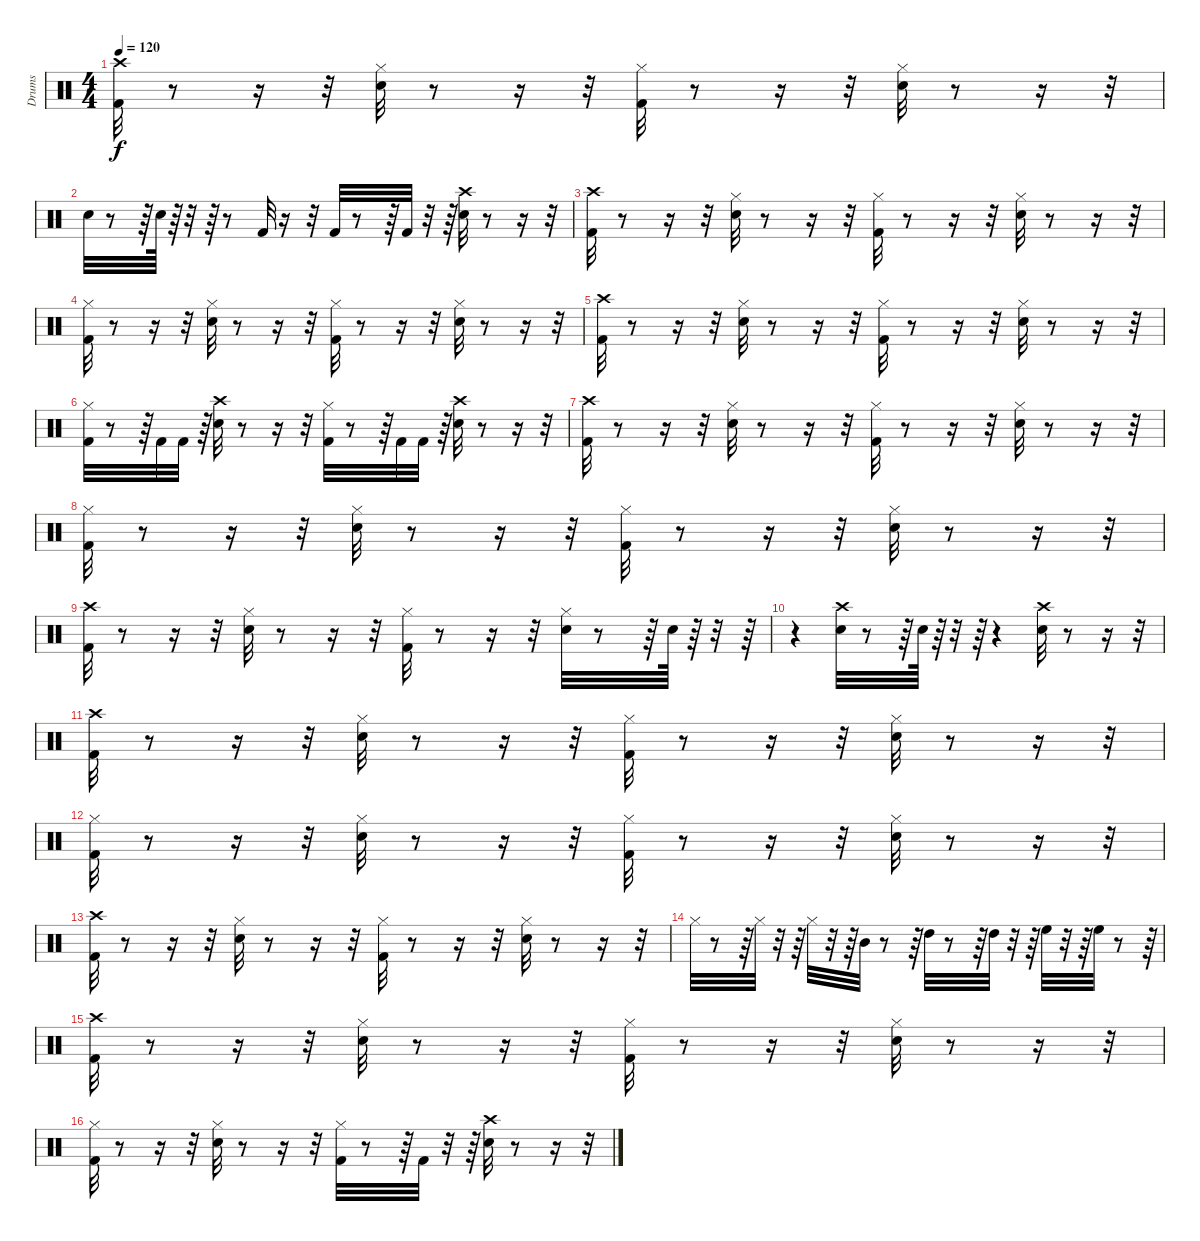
\track ("Drums" "Drums") {instrument percussion}
\staff {score}
\articulation defaults
\ts (4 4)
\tempo 120
\clef neutral
\ks c
("Kick (hit) 2" "Crash high (hit)").32{dy f} r.8 r.16 r.32 ("Hi-Hat (closed)" "Snare (hit) 2").32 r.8 r.16 r.32 ("Hi-Hat (closed)" "Kick (hit) 2").32 r.8 r.16 r.32 ("Hi-Hat (closed)" "Snare (hit) 2").32 r.8 r.16 r.32 |
"Snare (hit) 2".32 r.8 r.64 "Snare (hit) 2".64 r.64 r.32 r.64 r.8 "Kick (hit) 2".32 r.16 r.32 "Kick (hit) 2".32 r.8 r.64 "Kick (hit) 2".32 r.32 r.64 ("Crash high (hit)" "Snare (hit) 2").32 r.8 r.16 r.32 |
("Kick (hit) 2" "Crash high (hit)").32 r.8 r.16 r.32 ("Hi-Hat (closed)" "Snare (hit) 2").32 r.8 r.16 r.32 ("Hi-Hat (closed)" "Kick (hit) 2").32 r.8 r.16 r.32 ("Hi-Hat (closed)" "Snare (hit) 2").32 r.8 r.16 r.32 |
("Kick (hit) 2" "Hi-Hat (closed)").32 r.8 r.16 r.32 ("Snare (hit) 2" "Hi-Hat (closed)").32 r.8 r.16 r.32 ("Kick (hit) 2" "Hi-Hat (closed)").32 r.8 r.16 r.32 ("Snare (hit) 2" "Hi-Hat (closed)").32 r.8 r.16 r.32 |
("Kick (hit) 2" "Crash high (hit)").32 r.8 r.16 r.32 ("Hi-Hat (closed)" "Snare (hit) 2").32 r.8 r.16 r.32 ("Hi-Hat (closed)" "Kick (hit) 2").32 r.8 r.16 r.32 ("Hi-Hat (closed)" "Snare (hit) 2").32 r.8 r.16 r.32 |
("Kick (hit) 2" "Hi-Hat (closed)").32 r.8 r.64 "Kick (hit) 2".32 "Kick (hit) 2".32 r.64 ("Snare (hit) 2" "Crash high (hit)").32 r.8 r.16 r.32 ("Hi-Hat (closed)" "Kick (hit) 2").32 r.8 r.64 "Kick (hit) 2".32 "Kick (hit) 2".32 r.64 ("Crash high (hit)" "Snare (hit) 2").32 r.8 r.16 r.32 |
("Kick (hit) 2" "Crash high (hit)").32 r.8 r.16 r.32 ("Hi-Hat (closed)" "Snare (hit) 2").32 r.8 r.16 r.32 ("Hi-Hat (closed)" "Kick (hit) 2").32 r.8 r.16 r.32 ("Hi-Hat (closed)" "Snare (hit) 2").32 r.8 r.16 r.32 |
("Kick (hit) 2" "Hi-Hat (closed)").32 r.8 r.16 r.32 ("Snare (hit) 2" "Hi-Hat (closed)").32 r.8 r.16 r.32 ("Kick (hit) 2" "Hi-Hat (closed)").32 r.8 r.16 r.32 ("Snare (hit) 2" "Hi-Hat (closed)").32 r.8 r.16 r.32 |
("Crash high (hit)" "Kick (hit) 2").32 r.8 r.16 r.32 ("Hi-Hat (closed)" "Snare (hit) 2").32 r.8 r.16 r.32 ("Kick (hit) 2" "Hi-Hat (closed)").32 r.8 r.16 r.32 ("Hi-Hat (closed)" "Snare (hit) 2").32 r.8 r.64 "Snare (hit) 2".64 r.64 r.32 r.64 |
r.4 ("Crash high (hit)" "Snare (hit) 2").32 r.8 r.64 "Snare (hit) 2".64 r.64 r.32 r.64 r.4 ("Crash high (hit)" "Snare (hit) 2").32 r.8 r.16 r.32 |
("Kick (hit) 2" "Crash high (hit)").32 r.8 r.16 r.32 ("Snare (hit) 2" "Hi-Hat (closed)").32 r.8 r.16 r.32 ("Kick (hit) 2" "Hi-Hat (closed)").32 r.8 r.16 r.32 ("Snare (hit) 2" "Hi-Hat (closed)").32 r.8 r.16 r.32 |
("Kick (hit) 2" "Hi-Hat (closed)").32 r.8 r.16 r.32 ("Snare (hit) 2" "Hi-Hat (closed)").32 r.8 r.16 r.32 ("Kick (hit) 2" "Hi-Hat (closed)").32 r.8 r.16 r.32 ("Snare (hit) 2" "Hi-Hat (closed)").32 r.8 r.16 r.32 |
("Kick (hit) 2" "Crash high (hit)").32 r.8 r.16 r.32 ("Hi-Hat (closed)" "Snare (hit) 2").32 r.8 r.16 r.32 ("Hi-Hat (closed)" "Kick (hit) 2").32 r.8 r.16 r.32 ("Hi-Hat (closed)" "Snare (hit) 2").32 r.8 r.16 r.32 |
"Hi-Hat (closed)".32 r.8 r.64 "Hi-Hat (closed)".32 r.32 r.64 "Hi-Hat (closed)".32 r.32 r.64 "Mid Tom (hit)".32 r.8 r.64 "High Tom (hit)".32 r.8 r.64 "High Tom (hit)".32 r.32 r.64 "High Floor Tom (hit)".32 r.32 r.64 "High Floor Tom (hit)".32 r.8 r.64 |
("Kick (hit) 2" "Crash high (hit)").32 r.8 r.16 r.32 ("Snare (hit) 2" "Hi-Hat (closed)").32 r.8 r.16 r.32 ("Kick (hit) 2" "Hi-Hat (closed)").32 r.8 r.16 r.32 ("Snare (hit) 2" "Hi-Hat (closed)").32 r.8 r.16 r.32 |
("Hi-Hat (closed)" "Kick (hit) 2").32 r.8 r.16 r.32 ("Snare (hit) 2" "Hi-Hat (closed)").32 r.8 r.16 r.32 ("Kick (hit) 2" "Hi-Hat (closed)").32 r.8 r.64 "Kick (hit) 2".32 r.32 r.64 ("Snare (hit) 2" "Crash high (hit)").32 r.8 r.16 r.32
